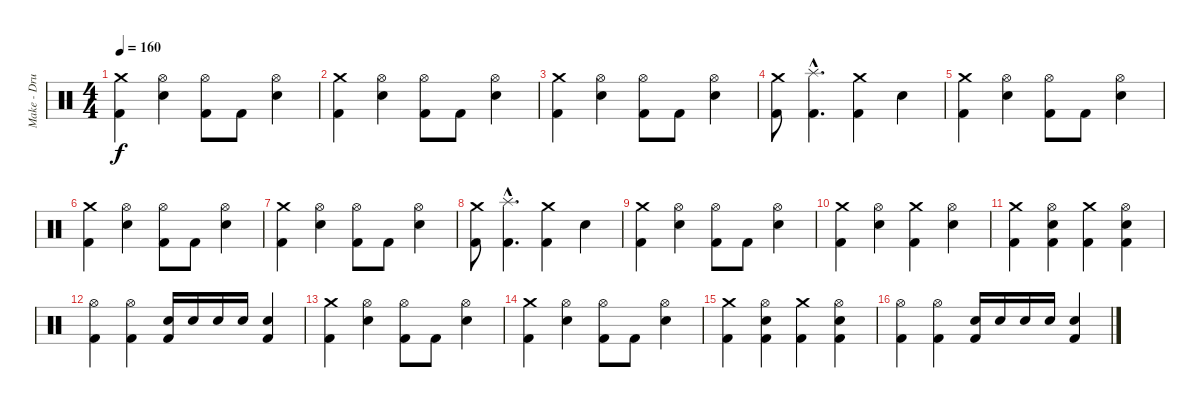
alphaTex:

\track ("Make - Drums" "Make - Dru") {instrument percussion}
\staff {score}
\articulation defaults
\ts (4 4)
\tempo 160
\clef neutral
\ks c
("Kick (hit) 2" "Crash medium (hit)").4{dy f} ("Snare (hit) 2" "Hi-Hat (open)").4 ("Kick (hit) 2" "Hi-Hat (open)").8 "Kick (hit) 2".8 ("Snare (hit) 2" "Hi-Hat (open)").4 |
("Kick (hit) 2" "Crash medium (hit)").4 ("Snare (hit) 2" "Hi-Hat (open)").4 ("Kick (hit) 2" "Hi-Hat (open)").8 "Kick (hit) 2".8 ("Snare (hit) 2" "Hi-Hat (open)").4 |
("Kick (hit) 2" "Crash medium (hit)").4 ("Snare (hit) 2" "Hi-Hat (open)").4 ("Kick (hit) 2" "Hi-Hat (open)").8 "Kick (hit) 2".8 ("Snare (hit) 2" "Hi-Hat (open)").4 |
("Kick (hit) 2" "Crash medium (hit)").8 ("Kick (hit) 2"{hac} "Splash (hit)"{hac}).4{d} ("Kick (hit) 2" "Crash medium (hit)").4 "Snare (hit) 2".4 |
("Kick (hit) 2" "Crash medium (hit)").4 ("Snare (hit) 2" "Hi-Hat (open)").4 ("Kick (hit) 2" "Hi-Hat (open)").8 "Kick (hit) 2".8 ("Snare (hit) 2" "Hi-Hat (open)").4 |
("Kick (hit) 2" "Crash medium (hit)").4 ("Snare (hit) 2" "Hi-Hat (open)").4 ("Kick (hit) 2" "Hi-Hat (open)").8 "Kick (hit) 2".8 ("Snare (hit) 2" "Hi-Hat (open)").4 |
("Kick (hit) 2" "Crash medium (hit)").4 ("Snare (hit) 2" "Hi-Hat (open)").4 ("Kick (hit) 2" "Hi-Hat (open)").8 "Kick (hit) 2".8 ("Snare (hit) 2" "Hi-Hat (open)").4 |
("Kick (hit) 2" "Crash medium (hit)").8 ("Kick (hit) 2"{hac} "Splash (hit)"{hac}).4{d} ("Kick (hit) 2" "Crash medium (hit)").4 "Snare (hit) 2".4 |
("Kick (hit) 2" "Crash medium (hit)").4 ("Snare (hit) 2" "Hi-Hat (open)").4 ("Kick (hit) 2" "Hi-Hat (open)").8 "Kick (hit) 2".8 ("Snare (hit) 2" "Hi-Hat (open)").4 |
("Kick (hit) 2" "Crash medium (hit)").4 ("Snare (hit) 2" "Hi-Hat (open)").4 ("Kick (hit) 2" "Crash medium (hit)").4 ("Snare (hit) 2" "Hi-Hat (open)").4 |
("Kick (hit) 2" "Crash medium (hit)").4 ("Snare (hit) 2" "Hi-Hat (open)" "Kick (hit) 2").4 ("Kick (hit) 2" "Crash medium (hit)").4 ("Snare (hit) 2" "Hi-Hat (open)" "Kick (hit) 2").4 |
("Kick (hit) 2" "Hi-Hat (open)").4 ("Kick (hit) 2" "Hi-Hat (open)").4 ("Snare (hit) 2" "Kick (hit) 2").16 "Snare (hit) 2".16 "Snare (hit) 2".16 "Snare (hit) 2".16 ("Snare (hit) 2" "Kick (hit) 2").4 |
("Kick (hit) 2" "Crash medium (hit)").4 ("Snare (hit) 2" "Hi-Hat (open)").4 ("Kick (hit) 2" "Hi-Hat (open)").8 "Kick (hit) 2".8 ("Snare (hit) 2" "Hi-Hat (open)").4 |
("Kick (hit) 2" "Crash medium (hit)").4 ("Snare (hit) 2" "Hi-Hat (open)").4 ("Kick (hit) 2" "Hi-Hat (open)").8 "Kick (hit) 2".8 ("Snare (hit) 2" "Hi-Hat (open)").4 |
("Kick (hit) 2" "Crash medium (hit)").4 ("Snare (hit) 2" "Hi-Hat (open)" "Kick (hit) 2").4 ("Kick (hit) 2" "Crash medium (hit)").4 ("Snare (hit) 2" "Hi-Hat (open)" "Kick (hit) 2").4 |
("Kick (hit) 2" "Hi-Hat (open)").4 ("Kick (hit) 2" "Hi-Hat (open)").4 ("Snare (hit) 2" "Kick (hit) 2").16 "Snare (hit) 2".16 "Snare (hit) 2".16 "Snare (hit) 2".16 ("Snare (hit) 2" "Kick (hit) 2").4
